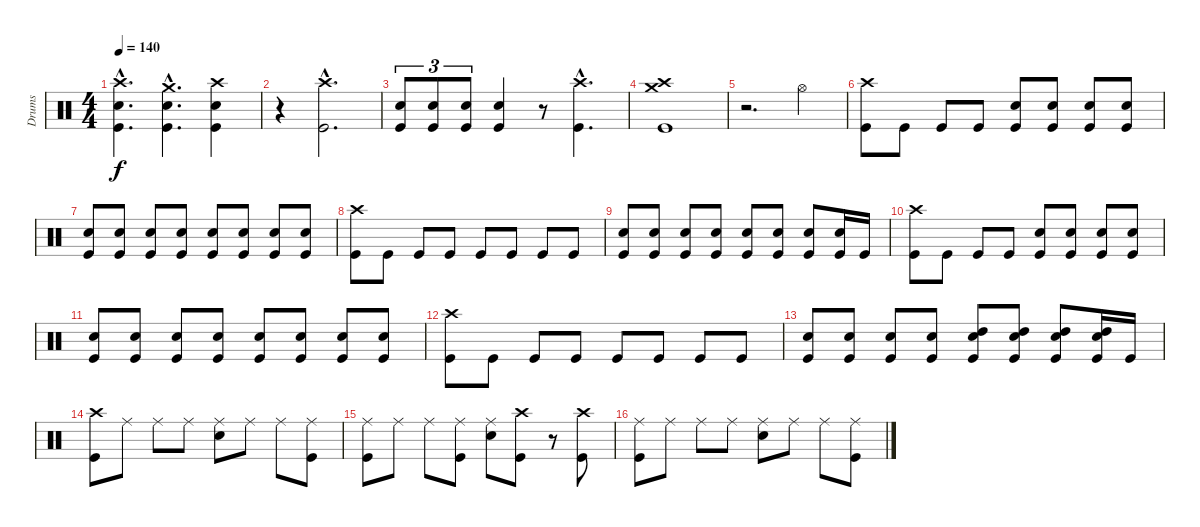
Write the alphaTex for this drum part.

\track ("Drums" "Drums") {instrument percussion}
\staff {score}
\articulation defaults
\ts (4 4)
\tempo 140
\clef neutral
\ks c
("Kick (hit)"{hac} "Snare (hit) 2"{hac} "Crash high (hit)"{hac}).4{d dy f} ("Kick (hit)"{hac} "Snare (hit) 2"{hac} "Crash medium (hit)"{hac}).4{d} ("Kick (hit)" "Snare (hit) 2" "Crash high (hit)").4 |
r.4 ("Kick (hit)"{hac} "Crash high (hit)"{hac}).2{d} |
("Kick (hit)" "Snare (hit) 2").8{tu (3 2)} ("Kick (hit)" "Snare (hit) 2").8{tu (3 2)} ("Kick (hit)" "Snare (hit) 2").8{tu (3 2)} ("Kick (hit)" "Snare (hit) 2").4 r.8 ("Kick (hit)"{hac} "Crash high (hit)"{hac}).4{d} |
("Kick (hit)" "Crash high (hit)" "Crash medium (hit)").1 |
r.2{d} "Hi-Hat (open)".4 |
("Kick (hit)" "Crash high (hit)").8 "Kick (hit)".8 "Kick (hit)".8 "Kick (hit)".8 ("Kick (hit)" "Snare (hit) 2").8 ("Kick (hit)" "Snare (hit) 2").8 ("Kick (hit)" "Snare (hit) 2").8 ("Kick (hit)" "Snare (hit) 2").8 |
("Kick (hit)" "Snare (hit) 2").8 ("Kick (hit)" "Snare (hit) 2").8 ("Kick (hit)" "Snare (hit) 2").8 ("Kick (hit)" "Snare (hit) 2").8 ("Kick (hit)" "Snare (hit) 2").8 ("Kick (hit)" "Snare (hit) 2").8 ("Kick (hit)" "Snare (hit) 2").8 ("Kick (hit)" "Snare (hit) 2").8 |
("Kick (hit)" "Crash high (hit)").8 "Kick (hit)".8 "Kick (hit)".8 "Kick (hit)".8 "Kick (hit)".8 "Kick (hit)".8 "Kick (hit)".8 "Kick (hit)".8 |
("Kick (hit)" "Snare (hit) 2").8 ("Kick (hit)" "Snare (hit) 2").8 ("Kick (hit)" "Snare (hit) 2").8 ("Kick (hit)" "Snare (hit) 2").8 ("Kick (hit)" "Snare (hit) 2").8 ("Kick (hit)" "Snare (hit) 2").8 ("Kick (hit)" "Snare (hit) 2").8 ("Kick (hit)" "Snare (hit) 2").16 "Kick (hit)".16 |
("Kick (hit)" "Crash high (hit)").8 "Kick (hit)".8 "Kick (hit)".8 "Kick (hit)".8 ("Kick (hit)" "Snare (hit) 2").8 ("Kick (hit)" "Snare (hit) 2").8 ("Kick (hit)" "Snare (hit) 2").8 ("Kick (hit)" "Snare (hit) 2").8 |
("Kick (hit)" "Snare (hit) 2").8 ("Kick (hit)" "Snare (hit) 2").8 ("Kick (hit)" "Snare (hit) 2").8 ("Kick (hit)" "Snare (hit) 2").8 ("Kick (hit)" "Snare (hit) 2").8 ("Kick (hit)" "Snare (hit) 2").8 ("Kick (hit)" "Snare (hit) 2").8 ("Kick (hit)" "Snare (hit) 2").8 |
("Kick (hit)" "Crash high (hit)").8 "Kick (hit)".8 "Kick (hit)".8 "Kick (hit)".8 "Kick (hit)".8 "Kick (hit)".8 "Kick (hit)".8 "Kick (hit)".8 |
("Kick (hit)" "Snare (hit) 2").8 ("Kick (hit)" "Snare (hit) 2").8 ("Kick (hit)" "Snare (hit) 2").8 ("Kick (hit)" "Snare (hit) 2").8 ("Kick (hit)" "Snare (hit) 2" "High Tom (hit)").8 ("Kick (hit)" "Snare (hit) 2" "High Tom (hit)").8 ("Kick (hit)" "Snare (hit) 2" "High Tom (hit)").8 ("Kick (hit)" "Snare (hit) 2" "High Tom (hit)").16 "Kick (hit)".16 |
("Kick (hit)" "Crash high (hit)").8 "Ride (middle)".8 "Ride (middle)".8 "Ride (middle)".8 ("Snare (hit) 2" "Ride (middle)").8 "Ride (middle)".8 "Ride (middle)".8 ("Kick (hit)" "Ride (middle)").8 |
("Kick (hit)" "Ride (middle)").8 "Ride (middle)".8 "Ride (middle)".8 ("Kick (hit)" "Ride (middle)").8 ("Snare (hit) 2" "Ride (middle)").8 ("Kick (hit)" "Crash high (hit)").8 r.8 ("Kick (hit)" "Crash high (hit)").8 |
("Kick (hit)" "Ride (middle)").8 "Ride (middle)".8 "Ride (middle)".8 "Ride (middle)".8 ("Snare (hit) 2" "Ride (middle)").8 "Ride (middle)".8 "Ride (middle)".8 ("Kick (hit)" "Ride (middle)").8
